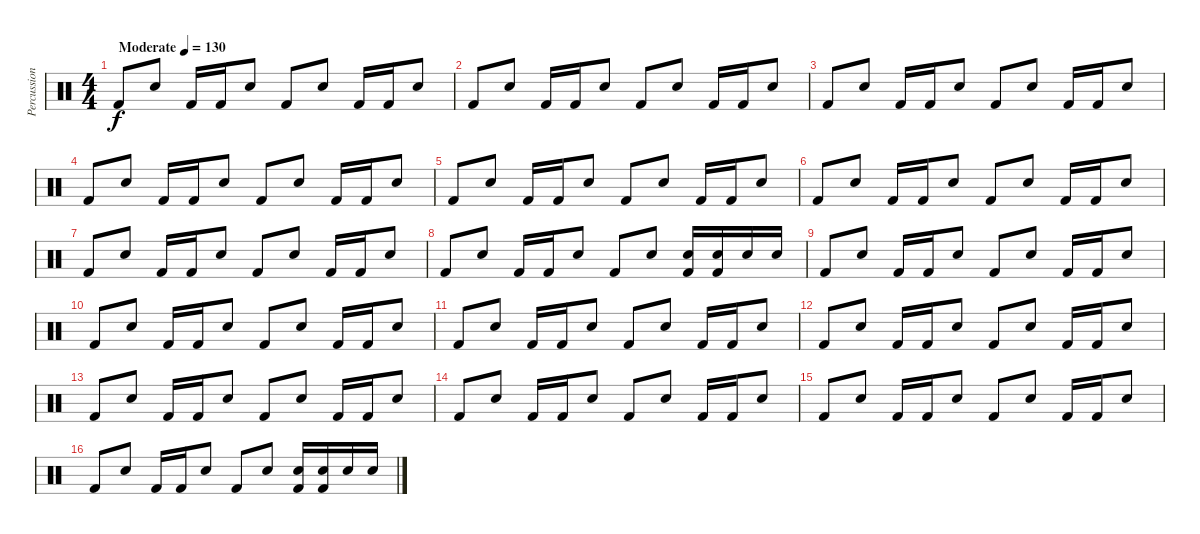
\track ("Percussion" "Percussion") {instrument percussion}
\staff {score}
\articulation defaults
\ts (4 4)
\tempo (130 "Moderate")
\clef neutral
\ks c "Kick (hit) 2".8{dy f} "Snare (hit) 2".8 "Kick (hit) 2".16 "Kick (hit) 2".16 "Snare (hit) 2".8 "Kick (hit) 2".8 "Snare (hit) 2".8 "Kick (hit) 2".16 "Kick (hit) 2".16 "Snare (hit) 2".8
|
"Kick (hit) 2".8 "Snare (hit) 2".8 "Kick (hit) 2".16 "Kick (hit) 2".16 "Snare (hit) 2".8 "Kick (hit) 2".8 "Snare (hit) 2".8 "Kick (hit) 2".16 "Kick (hit) 2".16 "Snare (hit) 2".8 |
"Kick (hit) 2".8 "Snare (hit) 2".8 "Kick (hit) 2".16 "Kick (hit) 2".16 "Snare (hit) 2".8 "Kick (hit) 2".8 "Snare (hit) 2".8 "Kick (hit) 2".16 "Kick (hit) 2".16 "Snare (hit) 2".8 |
"Kick (hit) 2".8 "Snare (hit) 2".8 "Kick (hit) 2".16 "Kick (hit) 2".16 "Snare (hit) 2".8 "Kick (hit) 2".8 "Snare (hit) 2".8 "Kick (hit) 2".16 "Kick (hit) 2".16 "Snare (hit) 2".8 |
"Kick (hit) 2".8 "Snare (hit) 2".8 "Kick (hit) 2".16 "Kick (hit) 2".16 "Snare (hit) 2".8 "Kick (hit) 2".8 "Snare (hit) 2".8 "Kick (hit) 2".16 "Kick (hit) 2".16 "Snare (hit) 2".8 |
"Kick (hit) 2".8 "Snare (hit) 2".8 "Kick (hit) 2".16 "Kick (hit) 2".16 "Snare (hit) 2".8 "Kick (hit) 2".8 "Snare (hit) 2".8 "Kick (hit) 2".16 "Kick (hit) 2".16 "Snare (hit) 2".8 |
"Kick (hit) 2".8 "Snare (hit) 2".8 "Kick (hit) 2".16 "Kick (hit) 2".16 "Snare (hit) 2".8 "Kick (hit) 2".8 "Snare (hit) 2".8 "Kick (hit) 2".16 "Kick (hit) 2".16 "Snare (hit) 2".8 |
"Kick (hit) 2".8 "Snare (hit) 2".8 "Kick (hit) 2".16 "Kick (hit) 2".16 "Snare (hit) 2".8 "Kick (hit) 2".8 "Snare (hit) 2".8 ("Kick (hit) 2" "Snare (hit) 2").16 ("Kick (hit) 2" "Snare (hit) 2").16 "Snare (hit) 2".16 "Snare (hit) 2".16 |
"Kick (hit) 2".8 "Snare (hit) 2".8 "Kick (hit) 2".16 "Kick (hit) 2".16 "Snare (hit) 2".8 "Kick (hit) 2".8 "Snare (hit) 2".8 "Kick (hit) 2".16 "Kick (hit) 2".16 "Snare (hit) 2".8 |
"Kick (hit) 2".8 "Snare (hit) 2".8 "Kick (hit) 2".16 "Kick (hit) 2".16 "Snare (hit) 2".8 "Kick (hit) 2".8 "Snare (hit) 2".8 "Kick (hit) 2".16 "Kick (hit) 2".16 "Snare (hit) 2".8 |
"Kick (hit) 2".8 "Snare (hit) 2".8 "Kick (hit) 2".16 "Kick (hit) 2".16 "Snare (hit) 2".8 "Kick (hit) 2".8 "Snare (hit) 2".8 "Kick (hit) 2".16 "Kick (hit) 2".16 "Snare (hit) 2".8 |
"Kick (hit) 2".8 "Snare (hit) 2".8 "Kick (hit) 2".16 "Kick (hit) 2".16 "Snare (hit) 2".8 "Kick (hit) 2".8 "Snare (hit) 2".8 "Kick (hit) 2".16 "Kick (hit) 2".16 "Snare (hit) 2".8 |
"Kick (hit) 2".8 "Snare (hit) 2".8 "Kick (hit) 2".16 "Kick (hit) 2".16 "Snare (hit) 2".8 "Kick (hit) 2".8 "Snare (hit) 2".8 "Kick (hit) 2".16 "Kick (hit) 2".16 "Snare (hit) 2".8 |
"Kick (hit) 2".8 "Snare (hit) 2".8 "Kick (hit) 2".16 "Kick (hit) 2".16 "Snare (hit) 2".8 "Kick (hit) 2".8 "Snare (hit) 2".8 "Kick (hit) 2".16 "Kick (hit) 2".16 "Snare (hit) 2".8 |
"Kick (hit) 2".8 "Snare (hit) 2".8 "Kick (hit) 2".16 "Kick (hit) 2".16 "Snare (hit) 2".8 "Kick (hit) 2".8 "Snare (hit) 2".8 "Kick (hit) 2".16 "Kick (hit) 2".16 "Snare (hit) 2".8 |
"Kick (hit) 2".8 "Snare (hit) 2".8 "Kick (hit) 2".16 "Kick (hit) 2".16 "Snare (hit) 2".8 "Kick (hit) 2".8 "Snare (hit) 2".8 ("Kick (hit) 2" "Snare (hit) 2").16 ("Kick (hit) 2" "Snare (hit) 2").16 "Snare (hit) 2".16 "Snare (hit) 2".16
